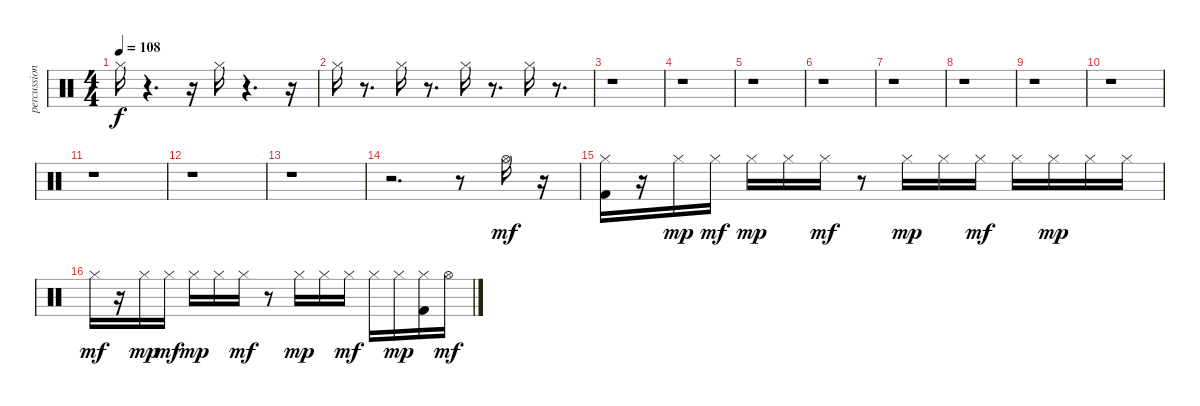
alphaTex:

\track ("percussion" "percussion") {instrument percussion}
\staff {score}
\articulation defaults
\ts (4 4)
\tempo 108
\clef neutral
\ks c "Hi-Hat (closed)".16{dy f}
r.4{d} r.16 "Hi-Hat (closed)".16 r.4{d} r.16 |
"Hi-Hat (closed)".16 r.8{d} "Hi-Hat (closed)".16 r.8{d} "Hi-Hat (closed)".16 r.8{d} "Hi-Hat (closed)".16 r.8{d} |
r.1 |
r.1 |
r.1 |
r.1 |
r.1 |
r.1 |
r.1 |
r.1 |
r.1 |
r.1 |
r.1 |
r.2{d} r.8 "Hi-Hat (open)".16{dy mf} r.16 |
("Kick (hit) 2" "Hi-Hat (closed)").16 r.16 "Hi-Hat (closed)".16{dy mp} "Hi-Hat (closed)".16{dy mf} "Hi-Hat (closed)".16{dy mp} "Hi-Hat (closed)".16 "Hi-Hat (closed)".16{dy mf} r.8 "Hi-Hat (closed)".16{dy mp} "Hi-Hat (closed)".16 "Hi-Hat (closed)".16{dy mf} "Hi-Hat (closed)".16 "Hi-Hat (closed)".16{dy mp} "Hi-Hat (closed)".16 "Hi-Hat (closed)".16 |
"Hi-Hat (closed)".16{dy mf} r.16 "Hi-Hat (closed)".16{dy mp} "Hi-Hat (closed)".16{dy mf} "Hi-Hat (closed)".16{dy mp} "Hi-Hat (closed)".16 "Hi-Hat (closed)".16{dy mf} r.8 "Hi-Hat (closed)".16{dy mp} "Hi-Hat (closed)".16 "Hi-Hat (closed)".16{dy mf} "Hi-Hat (closed)".16 "Hi-Hat (closed)".16{dy mp} ("Kick (hit) 2" "Hi-Hat (closed)").16 "Hi-Hat (open)".16{dy mf}
